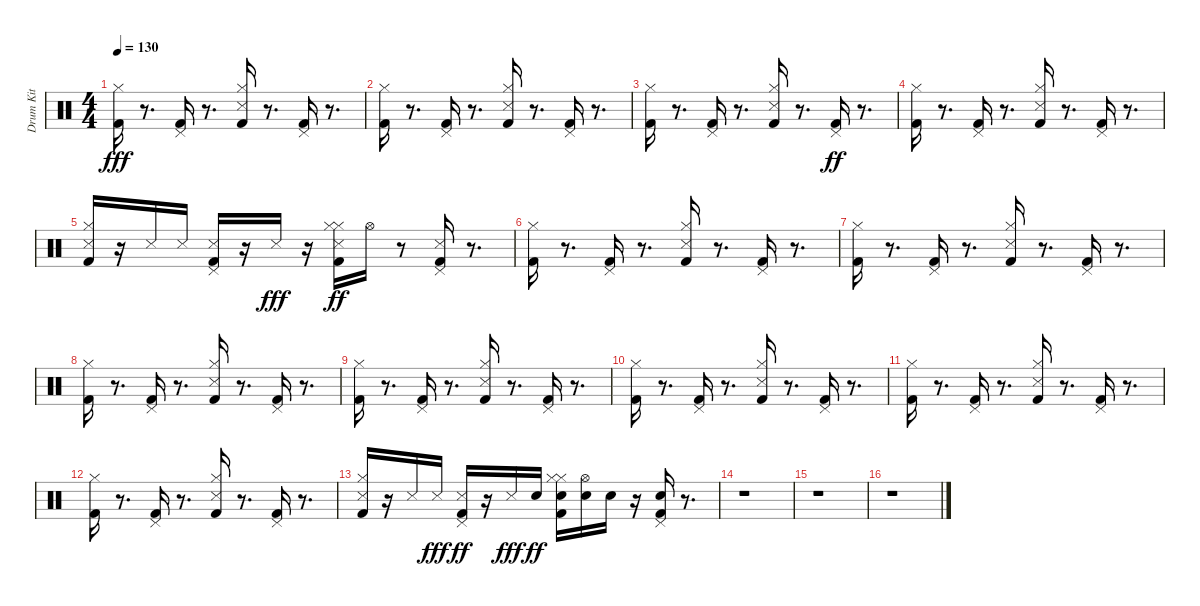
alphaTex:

\track ("Drum Kit" "Drum Kit") {instrument percussion}
\staff {score}
\articulation defaults
\ts (4 4)
\tempo 130
\clef neutral
\ks c
("Kick (hit) 2" "Hi-Hat (closed)").16{dy fff} r.8{d} ("Kick (hit) 2" "Pedal Hi-Hat (hit)").16 r.8{d} ("Kick (hit) 2" "Snare (side stick) 3" "Hi-Hat (closed)").16 r.8{d} ("Kick (hit) 2" "Pedal Hi-Hat (hit)").16 r.8{d} |
("Kick (hit) 2" "Hi-Hat (closed)").16 r.8{d} ("Kick (hit) 2" "Pedal Hi-Hat (hit)").16 r.8{d} ("Kick (hit) 2" "Snare (side stick) 3" "Hi-Hat (closed)").16 r.8{d} ("Kick (hit) 2" "Pedal Hi-Hat (hit)").16 r.8{d} |
("Kick (hit) 2" "Hi-Hat (closed)").16 r.8{d} ("Kick (hit) 2" "Pedal Hi-Hat (hit)").16 r.8{d} ("Kick (hit) 2" "Snare (side stick) 3" "Hi-Hat (closed)").16 r.8{d} ("Kick (hit) 2" "Pedal Hi-Hat (hit)").16{dy ff} r.8{d} |
("Kick (hit) 2" "Hi-Hat (closed)").16 r.8{d} ("Kick (hit) 2" "Pedal Hi-Hat (hit)").16 r.8{d} ("Kick (hit) 2" "Snare (side stick) 3" "Hi-Hat (closed)").16 r.8{d} ("Kick (hit) 2" "Pedal Hi-Hat (hit)").16 r.8{d} |
("Kick (hit) 2" "Snare (side stick) 3" "Hi-Hat (closed)").16 r.16 "Snare (side stick) 3".16 "Snare (side stick) 3".16 ("Kick (hit) 2" "Snare (side stick) 3" "Pedal Hi-Hat (hit)").16 r.16 "Snare (side stick) 3".16{dy fff} r.16 ("Kick (hit) 2" "Snare (side stick) 3" "Hi-Hat (closed)" "Hi-Hat (closed)").16{dy ff} "Hi-Hat (open)".16 r.8 ("Kick (hit) 2" "Snare (side stick) 3" "Pedal Hi-Hat (hit)").16 r.8{d} |
("Kick (hit) 2" "Hi-Hat (closed)").16 r.8{d} ("Kick (hit) 2" "Pedal Hi-Hat (hit)").16 r.8{d} ("Kick (hit) 2" "Snare (side stick) 3" "Hi-Hat (closed)").16 r.8{d} ("Kick (hit) 2" "Pedal Hi-Hat (hit)").16 r.8{d} |
("Kick (hit) 2" "Hi-Hat (closed)").16 r.8{d} ("Kick (hit) 2" "Pedal Hi-Hat (hit)").16 r.8{d} ("Kick (hit) 2" "Snare (side stick) 3" "Hi-Hat (closed)").16 r.8{d} ("Kick (hit) 2" "Pedal Hi-Hat (hit)").16 r.8{d} |
("Kick (hit) 2" "Hi-Hat (closed)").16 r.8{d} ("Kick (hit) 2" "Pedal Hi-Hat (hit)").16 r.8{d} ("Kick (hit) 2" "Snare (side stick) 3" "Hi-Hat (closed)").16 r.8{d} ("Kick (hit) 2" "Pedal Hi-Hat (hit)").16 r.8{d} |
("Kick (hit) 2" "Hi-Hat (closed)").16 r.8{d} ("Kick (hit) 2" "Pedal Hi-Hat (hit)").16 r.8{d} ("Kick (hit) 2" "Snare (side stick) 3" "Hi-Hat (closed)").16 r.8{d} ("Kick (hit) 2" "Pedal Hi-Hat (hit)").16 r.8{d} |
("Kick (hit) 2" "Hi-Hat (closed)").16 r.8{d} ("Kick (hit) 2" "Pedal Hi-Hat (hit)").16 r.8{d} ("Kick (hit) 2" "Snare (side stick) 3" "Hi-Hat (closed)").16 r.8{d} ("Kick (hit) 2" "Pedal Hi-Hat (hit)").16 r.8{d} |
("Kick (hit) 2" "Hi-Hat (closed)").16 r.8{d} ("Kick (hit) 2" "Pedal Hi-Hat (hit)").16 r.8{d} ("Kick (hit) 2" "Snare (side stick) 3" "Hi-Hat (closed)").16 r.8{d} ("Kick (hit) 2" "Pedal Hi-Hat (hit)").16 r.8{d} |
("Kick (hit) 2" "Hi-Hat (closed)").16 r.8{d} ("Kick (hit) 2" "Pedal Hi-Hat (hit)").16 r.8{d} ("Kick (hit) 2" "Snare (side stick) 3" "Hi-Hat (closed)").16 r.8{d} ("Kick (hit) 2" "Pedal Hi-Hat (hit)").16 r.8{d} |
("Kick (hit) 2" "Snare (side stick) 3" "Hi-Hat (closed)").16 r.16 "Snare (side stick) 3".16 "Snare (side stick) 3".16{dy fff} ("Kick (hit) 2" "Snare (side stick) 3" "Pedal Hi-Hat (hit)").16{dy ff} r.16 "Snare (side stick) 3".16{dy fff} "Electric Snare (hit)".16{dy ff} ("Kick (hit) 2" "Electric Snare (hit)" "Hi-Hat (closed)" "Hi-Hat (closed)").16 ("Electric Snare (hit)" "Hi-Hat (open)").16 "Electric Snare (hit)".16 r.16 ("Kick (hit) 2" "Electric Snare (hit)" "Pedal Hi-Hat (hit)").16 r.8{d} |
r.1 |
r.1 |
r.1
